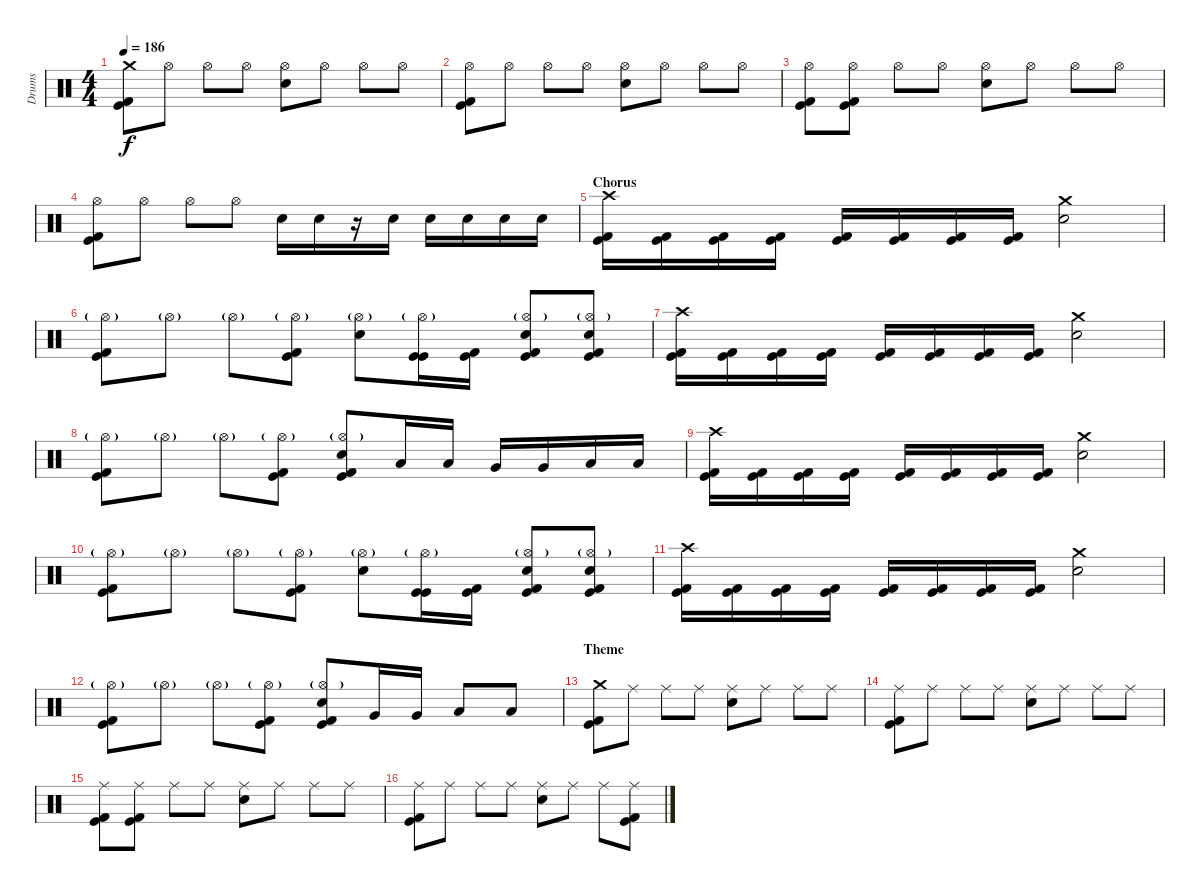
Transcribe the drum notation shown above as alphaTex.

\track ("Drums" "Drums") {instrument percussion}
\staff {score}
\articulation defaults
\ts (4 4)
\tempo 186
\clef neutral
\ks c
("Crash medium (hit)" "Kick (hit)" "Kick (hit) 2").8{dy f} "Hi-Hat (open)".8 "Hi-Hat (open)".8 "Hi-Hat (open)".8 ("Hi-Hat (open)" "Electric Snare (hit)").8 "Hi-Hat (open)".8 "Hi-Hat (open)".8 "Hi-Hat (open)".8 |
("Hi-Hat (open)" "Kick (hit)" "Kick (hit) 2").8 "Hi-Hat (open)".8 "Hi-Hat (open)".8 "Hi-Hat (open)".8 ("Hi-Hat (open)" "Electric Snare (hit)").8 "Hi-Hat (open)".8 "Hi-Hat (open)".8 "Hi-Hat (open)".8 |
("Hi-Hat (open)" "Kick (hit)" "Kick (hit) 2").8 ("Hi-Hat (open)" "Kick (hit)" "Kick (hit) 2").8 "Hi-Hat (open)".8 "Hi-Hat (open)".8 ("Hi-Hat (open)" "Electric Snare (hit)").8 "Hi-Hat (open)".8 "Hi-Hat (open)".8 "Hi-Hat (open)".8 |
("Hi-Hat (open)" "Kick (hit)" "Kick (hit) 2").8 "Hi-Hat (open)".8 "Hi-Hat (open)".8 "Hi-Hat (open)".8 "Electric Snare (hit)".16 "Electric Snare (hit)".16 r.16 "Electric Snare (hit)".16 "Electric Snare (hit)".16 "Electric Snare (hit)".16 "Electric Snare (hit)".16 "Electric Snare (hit)".16 |
\section ("" "Chorus")
("Crash high (hit)" "Kick (hit)" "Kick (hit) 2").16 ("Kick (hit)" "Kick (hit) 2").16 ("Kick (hit)" "Kick (hit) 2").16 ("Kick (hit)" "Kick (hit) 2").16 ("Kick (hit)" "Kick (hit) 2").16 ("Kick (hit)" "Kick (hit) 2").16 ("Kick (hit)" "Kick (hit) 2").16 ("Kick (hit)" "Kick (hit) 2").16 ("Crash medium (hit)" "Electric Snare (hit)").2 |
("Hi-Hat (open)"{g} "Kick (hit)" "Kick (hit) 2").8 "Hi-Hat (open)"{g}.8 "Hi-Hat (open)"{g}.8 ("Hi-Hat (open)"{g} "Kick (hit)" "Kick (hit) 2").8 ("Hi-Hat (open)"{g} "Electric Snare (hit)").8 ("Hi-Hat (open)"{g} "Kick (hit)" "Kick (hit)").16 ("Kick (hit)" "Kick (hit) 2").16 ("Hi-Hat (open)"{g} "Electric Snare (hit)" "Kick (hit)" "Kick (hit) 2").8 ("Hi-Hat (open)"{g} "Electric Snare (hit)" "Kick (hit)" "Kick (hit) 2").8 |
("Crash high (hit)" "Kick (hit)" "Kick (hit) 2").16 ("Kick (hit)" "Kick (hit) 2").16 ("Kick (hit)" "Kick (hit) 2").16 ("Kick (hit)" "Kick (hit) 2").16 ("Kick (hit)" "Kick (hit) 2").16 ("Kick (hit)" "Kick (hit) 2").16 ("Kick (hit)" "Kick (hit) 2").16 ("Kick (hit)" "Kick (hit) 2").16 ("Crash medium (hit)" "Electric Snare (hit)").2 |
("Hi-Hat (open)"{g} "Kick (hit)" "Kick (hit) 2").8 "Hi-Hat (open)"{g}.8 "Hi-Hat (open)"{g}.8 ("Hi-Hat (open)"{g} "Kick (hit)" "Kick (hit) 2").8 ("Hi-Hat (open)"{g} "Electric Snare (hit)" "Kick (hit)" "Kick (hit) 2").8 "Low Tom (hit)".16 "Low Tom (hit)".16 "Very Low Tom (hit)".16 "Very Low Tom (hit)".16 "Low Floor Tom (hit)".16 "Low Floor Tom (hit)".16 |
("Crash high (hit)" "Kick (hit)" "Kick (hit) 2").16 ("Kick (hit)" "Kick (hit) 2").16 ("Kick (hit)" "Kick (hit) 2").16 ("Kick (hit)" "Kick (hit) 2").16 ("Kick (hit)" "Kick (hit) 2").16 ("Kick (hit)" "Kick (hit) 2").16 ("Kick (hit)" "Kick (hit) 2").16 ("Kick (hit)" "Kick (hit) 2").16 ("Crash medium (hit)" "Electric Snare (hit)").2 |
("Hi-Hat (open)"{g} "Kick (hit)" "Kick (hit) 2").8 "Hi-Hat (open)"{g}.8 "Hi-Hat (open)"{g}.8 ("Hi-Hat (open)"{g} "Kick (hit)" "Kick (hit) 2").8 ("Hi-Hat (open)"{g} "Electric Snare (hit)").8 ("Hi-Hat (open)"{g} "Kick (hit)" "Kick (hit)").16 ("Kick (hit)" "Kick (hit) 2").16 ("Hi-Hat (open)"{g} "Electric Snare (hit)" "Kick (hit)" "Kick (hit) 2").8 ("Hi-Hat (open)"{g} "Electric Snare (hit)" "Kick (hit)" "Kick (hit) 2").8 |
("Crash high (hit)" "Kick (hit)" "Kick (hit) 2").16 ("Kick (hit)" "Kick (hit) 2").16 ("Kick (hit)" "Kick (hit) 2").16 ("Kick (hit)" "Kick (hit) 2").16 ("Kick (hit)" "Kick (hit) 2").16 ("Kick (hit)" "Kick (hit) 2").16 ("Kick (hit)" "Kick (hit) 2").16 ("Kick (hit)" "Kick (hit) 2").16 ("Crash medium (hit)" "Electric Snare (hit)").2 |
("Hi-Hat (open)"{g} "Kick (hit)" "Kick (hit) 2").8 "Hi-Hat (open)"{g}.8 "Hi-Hat (open)"{g}.8 ("Hi-Hat (open)"{g} "Kick (hit)" "Kick (hit) 2").8 ("Hi-Hat (open)"{g} "Electric Snare (hit)" "Kick (hit)" "Kick (hit) 2").8 "Very Low Tom (hit)".16 "Very Low Tom (hit)".16 "Low Floor Tom (hit)".8 "Low Floor Tom (hit)".8 |
\section ("" "Theme")
("Crash medium (hit)" "Kick (hit)" "Kick (hit) 2").8 "Ride (middle)".8 "Ride (middle)".8 "Ride (middle)".8 ("Ride (middle)" "Electric Snare (hit)").8 "Ride (middle)".8 "Ride (middle)".8 "Ride (middle)".8 |
("Ride (middle)" "Kick (hit)" "Kick (hit) 2").8 "Ride (middle)".8 "Ride (middle)".8 "Ride (middle)".8 ("Ride (middle)" "Electric Snare (hit)").8 "Ride (middle)".8 "Ride (middle)".8 "Ride (middle)".8 |
("Ride (middle)" "Kick (hit)" "Kick (hit) 2").8 ("Ride (middle)" "Kick (hit)" "Kick (hit) 2").8 "Ride (middle)".8 "Ride (middle)".8 ("Ride (middle)" "Electric Snare (hit)").8 "Ride (middle)".8 "Ride (middle)".8 "Ride (middle)".8 |
("Ride (middle)" "Kick (hit)" "Kick (hit) 2").8 "Ride (middle)".8 "Ride (middle)".8 "Ride (middle)".8 ("Ride (middle)" "Electric Snare (hit)").8 "Ride (middle)".8 "Ride (middle)".8 ("Ride (middle)" "Kick (hit)" "Kick (hit) 2").8
